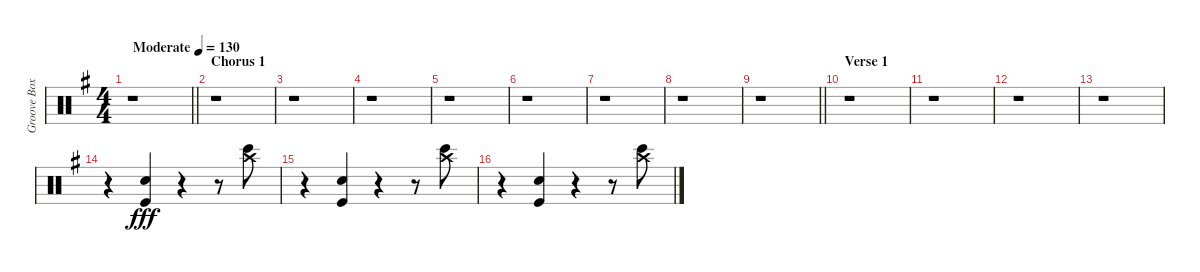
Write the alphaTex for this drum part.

\track ("Groove Box" "Groove Box") {instrument percussion}
\staff {score}
\articulation defaults
\ts (4 4)
\tempo (130 "Moderate")
\clef neutral
\barLineRight lightlight
\ks eminor
r.1{dy fff} |
\section ("" "Chorus 1")
r.1 |
r.1 |
r.1 |
r.1 |
r.1 |
r.1 |
r.1 |
\barLineRight lightlight
r.1 |
\section ("" "Verse 1")
r.1 |
r.1 |
r.1 |
r.1 |
r.4 ("Snare (hit) 2" "Kick (hit)").4 r.4 r.8 ("Bongo High (hit)" "Crash high (hit)").8 |
r.4 ("Snare (hit) 2" "Kick (hit)").4 r.4 r.8 ("Bongo High (hit)" "Crash high (hit)").8 |
r.4 ("Snare (hit) 2" "Kick (hit)").4 r.4 r.8 ("Bongo High (hit)" "Crash high (hit)").8
